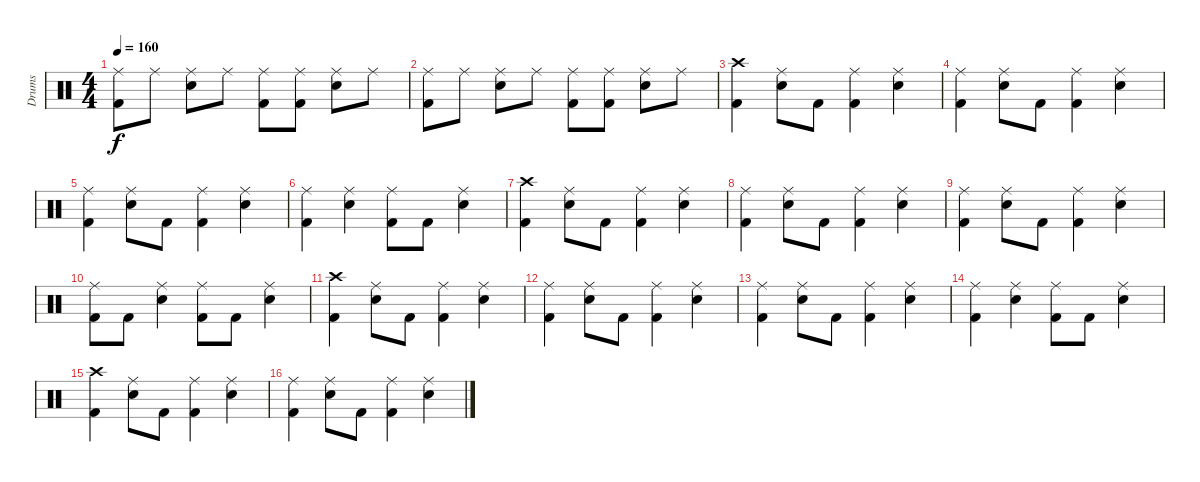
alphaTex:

\track ("Drums" "Drums") {instrument percussion}
\staff {score}
\articulation defaults
\ts (4 4)
\tempo 160
\clef neutral
\ks c
("Ride (middle)" "Kick (hit) 2").8{dy f} "Ride (middle)".8 ("Ride (middle)" "Electric Snare (hit)").8 "Ride (middle)".8 ("Ride (middle)" "Kick (hit) 2").8 ("Ride (middle)" "Kick (hit) 2").8 ("Ride (middle)" "Electric Snare (hit)").8 "Ride (middle)".8 |
("Ride (middle)" "Kick (hit) 2").8 "Ride (middle)".8 ("Ride (middle)" "Electric Snare (hit)").8 "Ride (middle)".8 ("Ride (middle)" "Kick (hit) 2").8 ("Ride (middle)" "Kick (hit) 2").8 ("Ride (middle)" "Electric Snare (hit)").8 "Ride (middle)".8 |
("Crash high (hit)" "Kick (hit) 2").4 ("Ride (middle)" "Electric Snare (hit)").8 "Kick (hit) 2".8 ("Ride (middle)" "Kick (hit) 2").4 ("Ride (middle)" "Electric Snare (hit)").4 |
("Ride (middle)" "Kick (hit) 2").4 ("Ride (middle)" "Electric Snare (hit)").8 "Kick (hit) 2".8 ("Ride (middle)" "Kick (hit) 2").4 ("Ride (middle)" "Electric Snare (hit)").4 |
("Ride (middle)" "Kick (hit) 2").4 ("Ride (middle)" "Electric Snare (hit)").8 "Kick (hit) 2".8 ("Ride (middle)" "Kick (hit) 2").4 ("Ride (middle)" "Electric Snare (hit)").4 |
("Ride (middle)" "Kick (hit) 2").4 ("Ride (middle)" "Electric Snare (hit)").4 ("Ride (middle)" "Kick (hit) 2").8 "Kick (hit) 2".8 ("Ride (middle)" "Electric Snare (hit)").4 |
("Crash high (hit)" "Kick (hit) 2").4 ("Ride (middle)" "Electric Snare (hit)").8 "Kick (hit) 2".8 ("Ride (middle)" "Kick (hit) 2").4 ("Ride (middle)" "Electric Snare (hit)").4 |
("Ride (middle)" "Kick (hit) 2").4 ("Ride (middle)" "Electric Snare (hit)").8 "Kick (hit) 2".8 ("Ride (middle)" "Kick (hit) 2").4 ("Ride (middle)" "Electric Snare (hit)").4 |
("Ride (middle)" "Kick (hit) 2").4 ("Ride (middle)" "Electric Snare (hit)").8 "Kick (hit) 2".8 ("Ride (middle)" "Kick (hit) 2").4 ("Ride (middle)" "Electric Snare (hit)").4 |
("Ride (middle)" "Kick (hit) 2").8 "Kick (hit) 2".8 ("Ride (middle)" "Electric Snare (hit)").4 ("Ride (middle)" "Kick (hit) 2").8 "Kick (hit) 2".8 ("Ride (middle)" "Electric Snare (hit)").4 |
("Crash high (hit)" "Kick (hit) 2").4 ("Ride (middle)" "Electric Snare (hit)").8 "Kick (hit) 2".8 ("Ride (middle)" "Kick (hit) 2").4 ("Ride (middle)" "Electric Snare (hit)").4 |
("Ride (middle)" "Kick (hit) 2").4 ("Ride (middle)" "Electric Snare (hit)").8 "Kick (hit) 2".8 ("Ride (middle)" "Kick (hit) 2").4 ("Ride (middle)" "Electric Snare (hit)").4 |
("Ride (middle)" "Kick (hit) 2").4 ("Ride (middle)" "Electric Snare (hit)").8 "Kick (hit) 2".8 ("Ride (middle)" "Kick (hit) 2").4 ("Ride (middle)" "Electric Snare (hit)").4 |
("Ride (middle)" "Kick (hit) 2").4 ("Ride (middle)" "Electric Snare (hit)").4 ("Ride (middle)" "Kick (hit) 2").8 "Kick (hit) 2".8 ("Ride (middle)" "Electric Snare (hit)").4 |
("Crash high (hit)" "Kick (hit) 2").4 ("Ride (middle)" "Electric Snare (hit)").8 "Kick (hit) 2".8 ("Ride (middle)" "Kick (hit) 2").4 ("Ride (middle)" "Electric Snare (hit)").4 |
("Ride (middle)" "Kick (hit) 2").4 ("Ride (middle)" "Electric Snare (hit)").8 "Kick (hit) 2".8 ("Ride (middle)" "Kick (hit) 2").4 ("Ride (middle)" "Electric Snare (hit)").4
